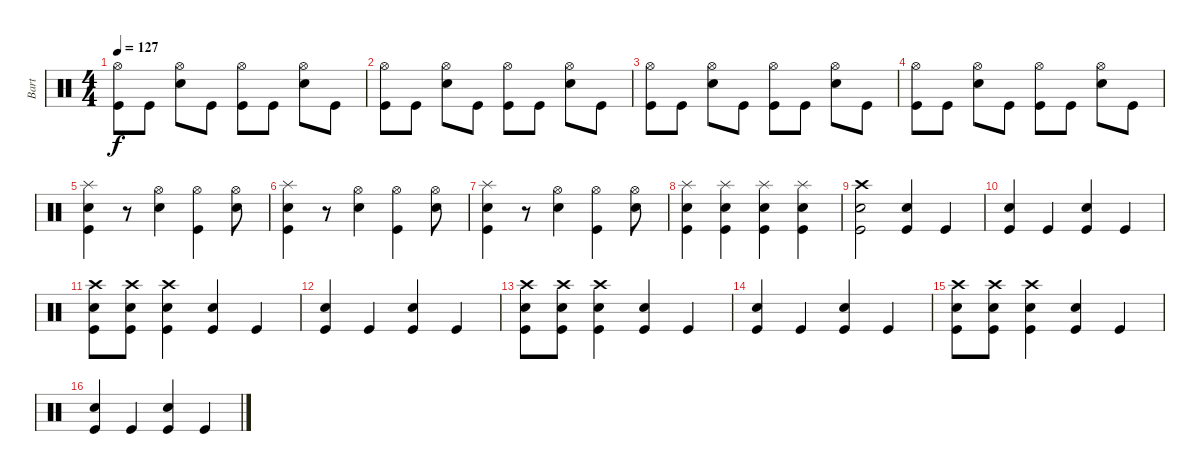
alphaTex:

\track ("Bart" "Bart") {instrument percussion}
\staff {score}
\articulation defaults
\ts (4 4)
\tempo 127
\clef neutral
\ks c
("Kick (hit)" "Hi-Hat (open)").8{dy f} "Kick (hit)".8 ("Electric Snare (hit)" "Hi-Hat (open)").8 "Kick (hit)".8 ("Kick (hit)" "Hi-Hat (open)").8 "Kick (hit)".8 ("Electric Snare (hit)" "Hi-Hat (open)").8 "Kick (hit)".8 |
("Kick (hit)" "Hi-Hat (open)").8 "Kick (hit)".8 ("Electric Snare (hit)" "Hi-Hat (open)").8 "Kick (hit)".8 ("Kick (hit)" "Hi-Hat (open)").8 "Kick (hit)".8 ("Electric Snare (hit)" "Hi-Hat (open)").8 "Kick (hit)".8 |
("Kick (hit)" "Hi-Hat (open)").8 "Kick (hit)".8 ("Electric Snare (hit)" "Hi-Hat (open)").8 "Kick (hit)".8 ("Kick (hit)" "Hi-Hat (open)").8 "Kick (hit)".8 ("Electric Snare (hit)" "Hi-Hat (open)").8 "Kick (hit)".8 |
("Kick (hit)" "Hi-Hat (open)").8 "Kick (hit)".8 ("Electric Snare (hit)" "Hi-Hat (open)").8 "Kick (hit)".8 ("Kick (hit)" "Hi-Hat (open)").8 "Kick (hit)".8 ("Electric Snare (hit)" "Hi-Hat (open)").8 "Kick (hit)".8 |
("Kick (hit)" "Electric Snare (hit)" "Splash (hit)").4 r.8 ("Electric Snare (hit)" "Hi-Hat (open)").4 ("Kick (hit)" "Hi-Hat (open)").4 ("Electric Snare (hit)" "Hi-Hat (open)").8 |
("Kick (hit)" "Electric Snare (hit)" "Splash (hit)").4 r.8 ("Electric Snare (hit)" "Hi-Hat (open)").4 ("Kick (hit)" "Hi-Hat (open)").4 ("Electric Snare (hit)" "Hi-Hat (open)").8 |
("Kick (hit)" "Electric Snare (hit)" "Splash (hit)").4 r.8 ("Electric Snare (hit)" "Hi-Hat (open)").4 ("Kick (hit)" "Hi-Hat (open)").4 ("Electric Snare (hit)" "Hi-Hat (open)").8 |
("Kick (hit)" "Electric Snare (hit)" "Splash (hit)").4 ("Kick (hit)" "Electric Snare (hit)" "Splash (hit)").4 ("Kick (hit)" "Electric Snare (hit)" "Splash (hit)").4 ("Kick (hit)" "Electric Snare (hit)" "Splash (hit)").4 |
("Kick (hit)" "Electric Snare (hit)" "Crash high (hit)").2 ("Kick (hit)" "Electric Snare (hit)").4 "Kick (hit)".4 |
("Kick (hit)" "Electric Snare (hit)").4 "Kick (hit)".4 ("Kick (hit)" "Electric Snare (hit)").4 "Kick (hit)".4 |
("Kick (hit)" "Electric Snare (hit)" "Crash high (hit)").8 ("Kick (hit)" "Electric Snare (hit)" "Crash high (hit)").8 ("Kick (hit)" "Electric Snare (hit)" "Crash high (hit)").4 ("Kick (hit)" "Electric Snare (hit)").4 "Kick (hit)".4 |
("Kick (hit)" "Electric Snare (hit)").4 "Kick (hit)".4 ("Kick (hit)" "Electric Snare (hit)").4 "Kick (hit)".4 |
("Kick (hit)" "Electric Snare (hit)" "Crash high (hit)").8 ("Kick (hit)" "Electric Snare (hit)" "Crash high (hit)").8 ("Kick (hit)" "Electric Snare (hit)" "Crash high (hit)").4 ("Kick (hit)" "Electric Snare (hit)").4 "Kick (hit)".4 |
("Kick (hit)" "Electric Snare (hit)").4 "Kick (hit)".4 ("Kick (hit)" "Electric Snare (hit)").4 "Kick (hit)".4 |
("Kick (hit)" "Electric Snare (hit)" "Crash high (hit)").8 ("Kick (hit)" "Electric Snare (hit)" "Crash high (hit)").8 ("Kick (hit)" "Electric Snare (hit)" "Crash high (hit)").4 ("Kick (hit)" "Electric Snare (hit)").4 "Kick (hit)".4 |
("Kick (hit)" "Electric Snare (hit)").4 "Kick (hit)".4 ("Kick (hit)" "Electric Snare (hit)").4 "Kick (hit)".4
